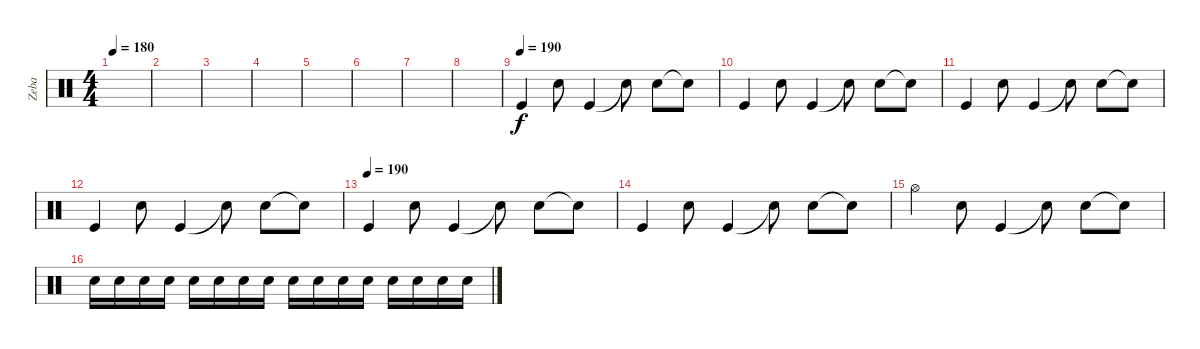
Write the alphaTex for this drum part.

\track ("Zeba" "Zeba") {instrument percussion}
\staff {score}
\articulation defaults
\ts (4 4)
\tempo 180
\tempo 140
\tempo 180
\clef neutral
\ks c
|
|
|
|
|
|
|
|
\tempo (190)
"Kick (hit)".4 "Snare (hit) 2".8 "Kick (hit)".4 "Snare (hit) 2"{t}.8 "Snare (hit) 2".8 "Snare (hit)"{t}.8 |
"Kick (hit)".4 "Snare (hit) 2".8 "Kick (hit)".4 "Snare (hit) 2"{t}.8 "Snare (hit) 2".8 "Snare (hit)"{t}.8 |
"Kick (hit)".4 "Snare (hit) 2".8 "Kick (hit)".4 "Snare (hit) 2"{t}.8 "Snare (hit) 2".8 "Snare (hit)"{t}.8 |
"Kick (hit)".4 "Snare (hit) 2".8 "Kick (hit)".4 "Snare (hit) 2"{t}.8 "Snare (hit) 2".8 "Snare (hit)"{t}.8 |
\tempo (190)
"Kick (hit)".4 "Snare (hit) 2".8 "Kick (hit)".4 "Snare (hit) 2"{t}.8 "Snare (hit) 2".8 "Snare (hit)"{t}.8 |
"Kick (hit)".4 "Snare (hit) 2".8 "Kick (hit)".4 "Snare (hit) 2"{t}.8 "Snare (hit) 2".8 "Snare (hit)"{t}.8 |
"Hi-Hat (open)".4 "Snare (hit) 2".8 "Kick (hit)".4 "Snare (hit) 2"{t}.8 "Snare (hit) 2".8 "Snare (hit)"{t}.8 |
"Electric Snare (hit)".16 "Electric Snare (hit)".16 "Electric Snare (hit)".16 "Electric Snare (hit)".16 "Electric Snare (hit)".16 "Electric Snare (hit)".16 "Electric Snare (hit)".16 "Electric Snare (hit)".16 "Snare (hit) 2".16 "Snare (hit) 2".16 "Snare (hit) 2".16 "Snare (hit) 2".16 "Snare (hit) 2".16 "Snare (hit) 2".16 "Snare (hit) 2".16 "Snare (hit) 2".16
